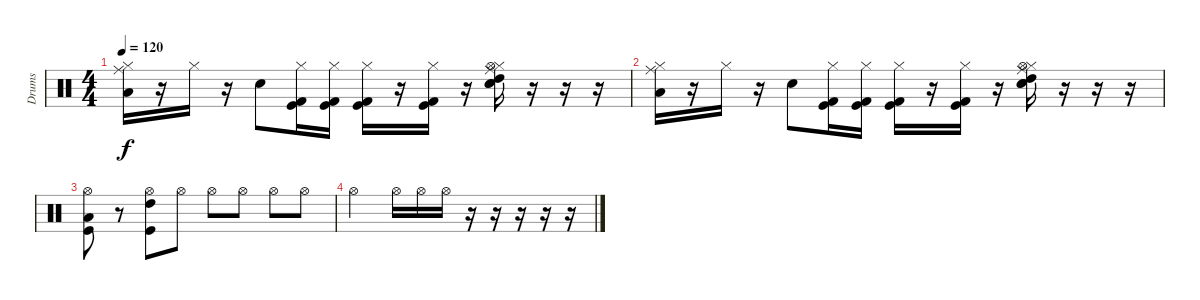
\track ("Drums" "Drums") {instrument percussion}
\staff {score}
\articulation defaults
\ts (4 4)
\tempo 120
\clef neutral
\ks c
("Hi-Hat (closed)" "Ride (middle)" "Low Tom (hit)").16{dy f} r.16 "Hi-Hat (closed)".16 r.16 "Snare (hit) 2".8 ("Kick (hit)" "Hi-Hat (closed)" "Kick (hit) 2").16 ("Kick (hit)" "Hi-Hat (closed)" "Kick (hit) 2").16 ("Kick (hit)" "Hi-Hat (closed)" "Kick (hit) 2").16 r.16 ("Kick (hit)" "Hi-Hat (closed)" "Kick (hit) 2").16 r.16 ("Snare (hit) 2" "Ride (middle)" "Hi-Hat (closed)" "Hi-Hat (open)" "High Tom (hit)" "Electric Snare (hit)").16 r.16 r.16 r.16 |
("Hi-Hat (closed)" "Ride (middle)" "Low Tom (hit)").16 r.16 "Hi-Hat (closed)".16 r.16 "Snare (hit) 2".8 ("Kick (hit)" "Hi-Hat (closed)" "Kick (hit) 2").16 ("Kick (hit)" "Hi-Hat (closed)" "Kick (hit) 2").16 ("Kick (hit)" "Hi-Hat (closed)" "Kick (hit) 2").16 r.16 ("Kick (hit)" "Hi-Hat (closed)" "Kick (hit) 2").16 r.16 ("Snare (hit) 2" "Ride (middle)" "Hi-Hat (closed)" "Hi-Hat (open)" "High Tom (hit)" "Electric Snare (hit)").16 r.16 r.16 r.16 |
("Kick (hit)" "Low Tom (hit)" "Hi-Hat (open)").8 r.8 ("Kick (hit)" "High Tom (hit)" "Hi-Hat (open)").8 "Hi-Hat (open)".8 "Hi-Hat (open)".8 "Hi-Hat (open)".8 "Hi-Hat (open)".8 "Hi-Hat (open)".8 |
"Hi-Hat (open)".2 "Hi-Hat (open)".16 "Hi-Hat (open)".16 "Hi-Hat (open)".16 r.16 r.16 r.16 r.16 r.16
